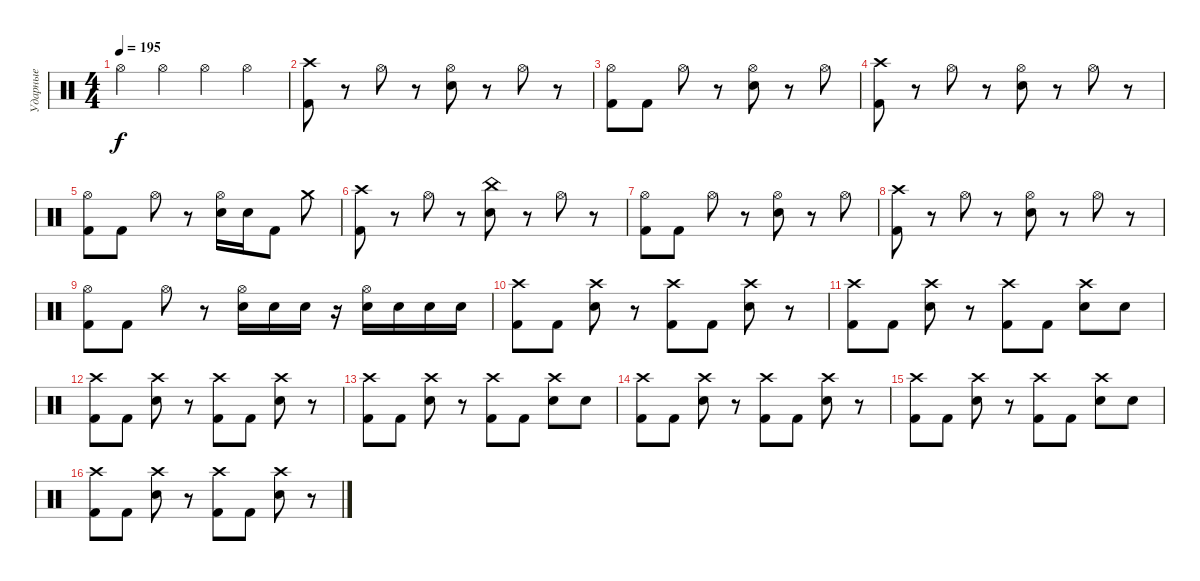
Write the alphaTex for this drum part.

\track ("Ударные" "Ударные") {instrument percussion}
\staff {score}
\articulation defaults
\ts (4 4)
\tempo 195
\clef neutral
\ks c "Hi-Hat (open)".4{dy f} "Hi-Hat (open)".4 "Hi-Hat (open)".4 "Hi-Hat (open)".4
|
("Crash high (hit)" "Kick (hit) 2").8 r.8 "Hi-Hat (open)".8 r.8 ("Hi-Hat (open)" "Electric Snare (hit)").8 r.8 "Hi-Hat (open)".8 r.8 |
("Hi-Hat (open)" "Kick (hit) 2").8 "Kick (hit) 2".8 "Hi-Hat (open)".8 r.8 ("Hi-Hat (open)" "Electric Snare (hit)").8 r.8 "Hi-Hat (open)".8 |
("Crash high (hit)" "Kick (hit) 2").8 r.8 "Hi-Hat (open)".8 r.8 ("Hi-Hat (open)" "Electric Snare (hit)").8 r.8 "Hi-Hat (open)".8 r.8 |
("Hi-Hat (open)" "Kick (hit) 2").8 "Kick (hit) 2".8 "Hi-Hat (open)".8 r.8 ("Hi-Hat (open)" "Electric Snare (hit)").16 "Electric Snare (hit)".16 "Kick (hit) 2".8 "Crash medium (hit)".8 |
("Crash high (hit)" "Kick (hit) 2").8 r.8 "Hi-Hat (open)".8 r.8 ("China (hit)" "Electric Snare (hit)").8 r.8 "Hi-Hat (open)".8 r.8 |
("Hi-Hat (open)" "Kick (hit) 2").8 "Kick (hit) 2".8 "Hi-Hat (open)".8 r.8 ("Hi-Hat (open)" "Electric Snare (hit)").8 r.8 "Hi-Hat (open)".8 |
("Crash high (hit)" "Kick (hit) 2").8 r.8 "Hi-Hat (open)".8 r.8 ("Hi-Hat (open)" "Electric Snare (hit)").8 r.8 "Hi-Hat (open)".8 r.8 |
("Hi-Hat (open)" "Kick (hit) 2").8 "Kick (hit) 2".8 "Hi-Hat (open)".8 r.8 ("Hi-Hat (open)" "Electric Snare (hit)").16 "Electric Snare (hit)".16 "Electric Snare (hit)".16 r.16 ("Hi-Hat (open)" "Electric Snare (hit)").16 "Electric Snare (hit)".16 "Electric Snare (hit)".16 "Electric Snare (hit)".16 |
("Crash high (hit)" "Kick (hit) 2").8 "Kick (hit) 2".8 ("Crash high (hit)" "Electric Snare (hit)").8 r.8 ("Crash high (hit)" "Kick (hit) 2").8 "Kick (hit) 2".8 ("Crash high (hit)" "Electric Snare (hit)").8 r.8 |
("Crash high (hit)" "Kick (hit) 2").8 "Kick (hit) 2".8 ("Crash high (hit)" "Electric Snare (hit)").8 r.8 ("Crash high (hit)" "Kick (hit) 2").8 "Kick (hit) 2".8 ("Crash high (hit)" "Electric Snare (hit)").8 "Electric Snare (hit)".8 |
("Crash high (hit)" "Kick (hit) 2").8 "Kick (hit) 2".8 ("Crash high (hit)" "Electric Snare (hit)").8 r.8 ("Crash high (hit)" "Kick (hit) 2").8 "Kick (hit) 2".8 ("Crash high (hit)" "Electric Snare (hit)").8 r.8 |
("Crash high (hit)" "Kick (hit) 2").8 "Kick (hit) 2".8 ("Crash high (hit)" "Electric Snare (hit)").8 r.8 ("Crash high (hit)" "Kick (hit) 2").8 "Kick (hit) 2".8 ("Crash high (hit)" "Electric Snare (hit)").8 "Electric Snare (hit)".8 |
("Crash high (hit)" "Kick (hit) 2").8 "Kick (hit) 2".8 ("Crash high (hit)" "Electric Snare (hit)").8 r.8 ("Crash high (hit)" "Kick (hit) 2").8 "Kick (hit) 2".8 ("Crash high (hit)" "Electric Snare (hit)").8 r.8 |
("Crash high (hit)" "Kick (hit) 2").8 "Kick (hit) 2".8 ("Crash high (hit)" "Electric Snare (hit)").8 r.8 ("Crash high (hit)" "Kick (hit) 2").8 "Kick (hit) 2".8 ("Crash high (hit)" "Electric Snare (hit)").8 "Electric Snare (hit)".8 |
("Crash high (hit)" "Kick (hit) 2").8 "Kick (hit) 2".8 ("Crash high (hit)" "Electric Snare (hit)").8 r.8 ("Crash high (hit)" "Kick (hit) 2").8 "Kick (hit) 2".8 ("Crash high (hit)" "Electric Snare (hit)").8 r.8
